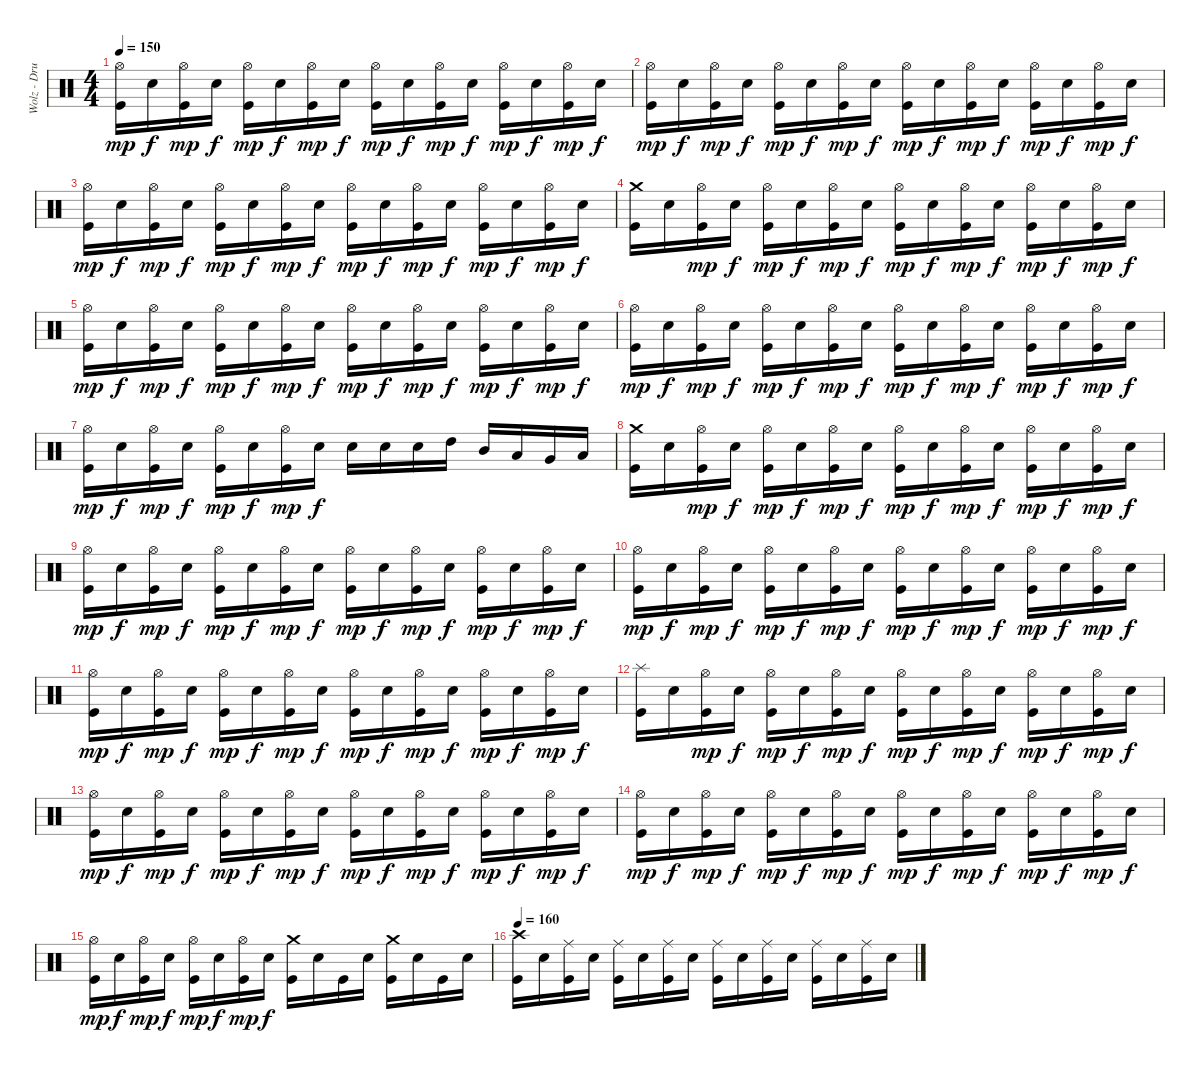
\track ("Wolz - Drums" "Wolz - Dru") {instrument percussion}
\staff {score}
\articulation defaults
\ts (4 4)
\tempo 150
\clef neutral
\ks c
("Hi-Hat (open)" "Kick (hit)").16{dy mp} "Electric Snare (hit)".16{dy f} ("Hi-Hat (open)" "Kick (hit)").16{dy mp} "Electric Snare (hit)".16{dy f} ("Hi-Hat (open)" "Kick (hit)").16{dy mp} "Electric Snare (hit)".16{dy f} ("Hi-Hat (open)" "Kick (hit)").16{dy mp} "Electric Snare (hit)".16{dy f} ("Hi-Hat (open)" "Kick (hit)").16{dy mp} "Electric Snare (hit)".16{dy f} ("Hi-Hat (open)" "Kick (hit)").16{dy mp} "Electric Snare (hit)".16{dy f} ("Hi-Hat (open)" "Kick (hit)").16{dy mp} "Electric Snare (hit)".16{dy f} ("Hi-Hat (open)" "Kick (hit)").16{dy mp} "Electric Snare (hit)".16{dy f} |
("Hi-Hat (open)" "Kick (hit)").16{dy mp} "Electric Snare (hit)".16{dy f} ("Hi-Hat (open)" "Kick (hit)").16{dy mp} "Electric Snare (hit)".16{dy f} ("Hi-Hat (open)" "Kick (hit)").16{dy mp} "Electric Snare (hit)".16{dy f} ("Hi-Hat (open)" "Kick (hit)").16{dy mp} "Electric Snare (hit)".16{dy f} ("Hi-Hat (open)" "Kick (hit)").16{dy mp} "Electric Snare (hit)".16{dy f} ("Hi-Hat (open)" "Kick (hit)").16{dy mp} "Electric Snare (hit)".16{dy f} ("Hi-Hat (open)" "Kick (hit)").16{dy mp} "Electric Snare (hit)".16{dy f} ("Hi-Hat (open)" "Kick (hit)").16{dy mp} "Electric Snare (hit)".16{dy f} |
("Hi-Hat (open)" "Kick (hit)").16{dy mp} "Electric Snare (hit)".16{dy f} ("Hi-Hat (open)" "Kick (hit)").16{dy mp} "Electric Snare (hit)".16{dy f} ("Hi-Hat (open)" "Kick (hit)").16{dy mp} "Electric Snare (hit)".16{dy f} ("Hi-Hat (open)" "Kick (hit)").16{dy mp} "Electric Snare (hit)".16{dy f} ("Hi-Hat (open)" "Kick (hit)").16{dy mp} "Electric Snare (hit)".16{dy f} ("Hi-Hat (open)" "Kick (hit)").16{dy mp} "Electric Snare (hit)".16{dy f} ("Hi-Hat (open)" "Kick (hit)").16{dy mp} "Electric Snare (hit)".16{dy f} ("Hi-Hat (open)" "Kick (hit)").16{dy mp} "Electric Snare (hit)".16{dy f} |
("Crash medium (hit)" "Kick (hit)").16 "Electric Snare (hit)".16 ("Hi-Hat (open)" "Kick (hit)").16{dy mp} "Electric Snare (hit)".16{dy f} ("Hi-Hat (open)" "Kick (hit)").16{dy mp} "Electric Snare (hit)".16{dy f} ("Hi-Hat (open)" "Kick (hit)").16{dy mp} "Electric Snare (hit)".16{dy f} ("Hi-Hat (open)" "Kick (hit)").16{dy mp} "Electric Snare (hit)".16{dy f} ("Hi-Hat (open)" "Kick (hit)").16{dy mp} "Electric Snare (hit)".16{dy f} ("Hi-Hat (open)" "Kick (hit)").16{dy mp} "Electric Snare (hit)".16{dy f} ("Hi-Hat (open)" "Kick (hit)").16{dy mp} "Electric Snare (hit)".16{dy f} |
("Hi-Hat (open)" "Kick (hit)").16{dy mp} "Electric Snare (hit)".16{dy f} ("Hi-Hat (open)" "Kick (hit)").16{dy mp} "Electric Snare (hit)".16{dy f} ("Hi-Hat (open)" "Kick (hit)").16{dy mp} "Electric Snare (hit)".16{dy f} ("Hi-Hat (open)" "Kick (hit)").16{dy mp} "Electric Snare (hit)".16{dy f} ("Hi-Hat (open)" "Kick (hit)").16{dy mp} "Electric Snare (hit)".16{dy f} ("Hi-Hat (open)" "Kick (hit)").16{dy mp} "Electric Snare (hit)".16{dy f} ("Hi-Hat (open)" "Kick (hit)").16{dy mp} "Electric Snare (hit)".16{dy f} ("Hi-Hat (open)" "Kick (hit)").16{dy mp} "Electric Snare (hit)".16{dy f} |
("Hi-Hat (open)" "Kick (hit)").16{dy mp} "Electric Snare (hit)".16{dy f} ("Hi-Hat (open)" "Kick (hit)").16{dy mp} "Electric Snare (hit)".16{dy f} ("Hi-Hat (open)" "Kick (hit)").16{dy mp} "Electric Snare (hit)".16{dy f} ("Hi-Hat (open)" "Kick (hit)").16{dy mp} "Electric Snare (hit)".16{dy f} ("Hi-Hat (open)" "Kick (hit)").16{dy mp} "Electric Snare (hit)".16{dy f} ("Hi-Hat (open)" "Kick (hit)").16{dy mp} "Electric Snare (hit)".16{dy f} ("Hi-Hat (open)" "Kick (hit)").16{dy mp} "Electric Snare (hit)".16{dy f} ("Hi-Hat (open)" "Kick (hit)").16{dy mp} "Electric Snare (hit)".16{dy f} |
("Hi-Hat (open)" "Kick (hit)").16{dy mp} "Electric Snare (hit)".16{dy f} ("Hi-Hat (open)" "Kick (hit)").16{dy mp} "Electric Snare (hit)".16{dy f} ("Hi-Hat (open)" "Kick (hit)").16{dy mp} "Electric Snare (hit)".16{dy f} ("Hi-Hat (open)" "Kick (hit)").16{dy mp} "Electric Snare (hit)".16{dy f} "Electric Snare (hit)".16 "Electric Snare (hit)".16 "Electric Snare (hit)".16 "High Tom (hit)".16 "Mid Tom (hit)".16 "Low Tom (hit)".16 "Very Low Tom (hit)".16 "Low Floor Tom (hit)".16 |
("Crash medium (hit)" "Kick (hit)").16 "Electric Snare (hit)".16 ("Hi-Hat (open)" "Kick (hit)").16{dy mp} "Electric Snare (hit)".16{dy f} ("Hi-Hat (open)" "Kick (hit)").16{dy mp} "Electric Snare (hit)".16{dy f} ("Hi-Hat (open)" "Kick (hit)").16{dy mp} "Electric Snare (hit)".16{dy f} ("Hi-Hat (open)" "Kick (hit)").16{dy mp} "Electric Snare (hit)".16{dy f} ("Hi-Hat (open)" "Kick (hit)").16{dy mp} "Electric Snare (hit)".16{dy f} ("Hi-Hat (open)" "Kick (hit)").16{dy mp} "Electric Snare (hit)".16{dy f} ("Hi-Hat (open)" "Kick (hit)").16{dy mp} "Electric Snare (hit)".16{dy f} |
("Hi-Hat (open)" "Kick (hit)").16{dy mp} "Electric Snare (hit)".16{dy f} ("Hi-Hat (open)" "Kick (hit)").16{dy mp} "Electric Snare (hit)".16{dy f} ("Hi-Hat (open)" "Kick (hit)").16{dy mp} "Electric Snare (hit)".16{dy f} ("Hi-Hat (open)" "Kick (hit)").16{dy mp} "Electric Snare (hit)".16{dy f} ("Hi-Hat (open)" "Kick (hit)").16{dy mp} "Electric Snare (hit)".16{dy f} ("Hi-Hat (open)" "Kick (hit)").16{dy mp} "Electric Snare (hit)".16{dy f} ("Hi-Hat (open)" "Kick (hit)").16{dy mp} "Electric Snare (hit)".16{dy f} ("Hi-Hat (open)" "Kick (hit)").16{dy mp} "Electric Snare (hit)".16{dy f} |
("Hi-Hat (open)" "Kick (hit)").16{dy mp} "Electric Snare (hit)".16{dy f} ("Hi-Hat (open)" "Kick (hit)").16{dy mp} "Electric Snare (hit)".16{dy f} ("Hi-Hat (open)" "Kick (hit)").16{dy mp} "Electric Snare (hit)".16{dy f} ("Hi-Hat (open)" "Kick (hit)").16{dy mp} "Electric Snare (hit)".16{dy f} ("Hi-Hat (open)" "Kick (hit)").16{dy mp} "Electric Snare (hit)".16{dy f} ("Hi-Hat (open)" "Kick (hit)").16{dy mp} "Electric Snare (hit)".16{dy f} ("Hi-Hat (open)" "Kick (hit)").16{dy mp} "Electric Snare (hit)".16{dy f} ("Hi-Hat (open)" "Kick (hit)").16{dy mp} "Electric Snare (hit)".16{dy f} |
("Hi-Hat (open)" "Kick (hit)").16{dy mp} "Electric Snare (hit)".16{dy f} ("Hi-Hat (open)" "Kick (hit)").16{dy mp} "Electric Snare (hit)".16{dy f} ("Hi-Hat (open)" "Kick (hit)").16{dy mp} "Electric Snare (hit)".16{dy f} ("Hi-Hat (open)" "Kick (hit)").16{dy mp} "Electric Snare (hit)".16{dy f} ("Hi-Hat (open)" "Kick (hit)").16{dy mp} "Electric Snare (hit)".16{dy f} ("Hi-Hat (open)" "Kick (hit)").16{dy mp} "Electric Snare (hit)".16{dy f} ("Hi-Hat (open)" "Kick (hit)").16{dy mp} "Electric Snare (hit)".16{dy f} ("Hi-Hat (open)" "Kick (hit)").16{dy mp} "Electric Snare (hit)".16{dy f} |
("Splash (hit)" "Kick (hit)").16 "Electric Snare (hit)".16 ("Hi-Hat (open)" "Kick (hit)").16{dy mp} "Electric Snare (hit)".16{dy f} ("Hi-Hat (open)" "Kick (hit)").16{dy mp} "Electric Snare (hit)".16{dy f} ("Hi-Hat (open)" "Kick (hit)").16{dy mp} "Electric Snare (hit)".16{dy f} ("Hi-Hat (open)" "Kick (hit)").16{dy mp} "Electric Snare (hit)".16{dy f} ("Hi-Hat (open)" "Kick (hit)").16{dy mp} "Electric Snare (hit)".16{dy f} ("Hi-Hat (open)" "Kick (hit)").16{dy mp} "Electric Snare (hit)".16{dy f} ("Hi-Hat (open)" "Kick (hit)").16{dy mp} "Electric Snare (hit)".16{dy f} |
("Hi-Hat (open)" "Kick (hit)").16{dy mp} "Electric Snare (hit)".16{dy f} ("Hi-Hat (open)" "Kick (hit)").16{dy mp} "Electric Snare (hit)".16{dy f} ("Hi-Hat (open)" "Kick (hit)").16{dy mp} "Electric Snare (hit)".16{dy f} ("Hi-Hat (open)" "Kick (hit)").16{dy mp} "Electric Snare (hit)".16{dy f} ("Hi-Hat (open)" "Kick (hit)").16{dy mp} "Electric Snare (hit)".16{dy f} ("Hi-Hat (open)" "Kick (hit)").16{dy mp} "Electric Snare (hit)".16{dy f} ("Hi-Hat (open)" "Kick (hit)").16{dy mp} "Electric Snare (hit)".16{dy f} ("Hi-Hat (open)" "Kick (hit)").16{dy mp} "Electric Snare (hit)".16{dy f} |
("Hi-Hat (open)" "Kick (hit)").16{dy mp} "Electric Snare (hit)".16{dy f} ("Hi-Hat (open)" "Kick (hit)").16{dy mp} "Electric Snare (hit)".16{dy f} ("Hi-Hat (open)" "Kick (hit)").16{dy mp} "Electric Snare (hit)".16{dy f} ("Hi-Hat (open)" "Kick (hit)").16{dy mp} "Electric Snare (hit)".16{dy f} ("Hi-Hat (open)" "Kick (hit)").16{dy mp} "Electric Snare (hit)".16{dy f} ("Hi-Hat (open)" "Kick (hit)").16{dy mp} "Electric Snare (hit)".16{dy f} ("Hi-Hat (open)" "Kick (hit)").16{dy mp} "Electric Snare (hit)".16{dy f} ("Hi-Hat (open)" "Kick (hit)").16{dy mp} "Electric Snare (hit)".16{dy f} |
("Hi-Hat (open)" "Kick (hit)").16{dy mp} "Electric Snare (hit)".16{dy f} ("Hi-Hat (open)" "Kick (hit)").16{dy mp} "Electric Snare (hit)".16{dy f} ("Hi-Hat (open)" "Kick (hit)").16{dy mp} "Electric Snare (hit)".16{dy f} ("Hi-Hat (open)" "Kick (hit)").16{dy mp} "Electric Snare (hit)".16{dy f} ("Crash medium (hit)" "Kick (hit)").16 "Electric Snare (hit)".16 "Kick (hit)".16 "Electric Snare (hit)".16 ("Crash medium (hit)" "Kick (hit)").16 "Electric Snare (hit)".16 "Kick (hit)".16 "Electric Snare (hit)".16 |
\tempo 160
("Crash high (hit)" "Kick (hit)").16 "Electric Snare (hit)".16 ("Ride (middle)" "Kick (hit)").16 "Electric Snare (hit)".16 ("Ride (middle)" "Kick (hit)").16 "Electric Snare (hit)".16 ("Ride (middle)" "Kick (hit)").16 "Electric Snare (hit)".16 ("Ride (middle)" "Kick (hit)").16 "Electric Snare (hit)".16 ("Ride (middle)" "Kick (hit)").16 "Electric Snare (hit)".16 ("Ride (middle)" "Kick (hit)").16 "Electric Snare (hit)".16 ("Ride (middle)" "Kick (hit)").16 "Electric Snare (hit)".16
